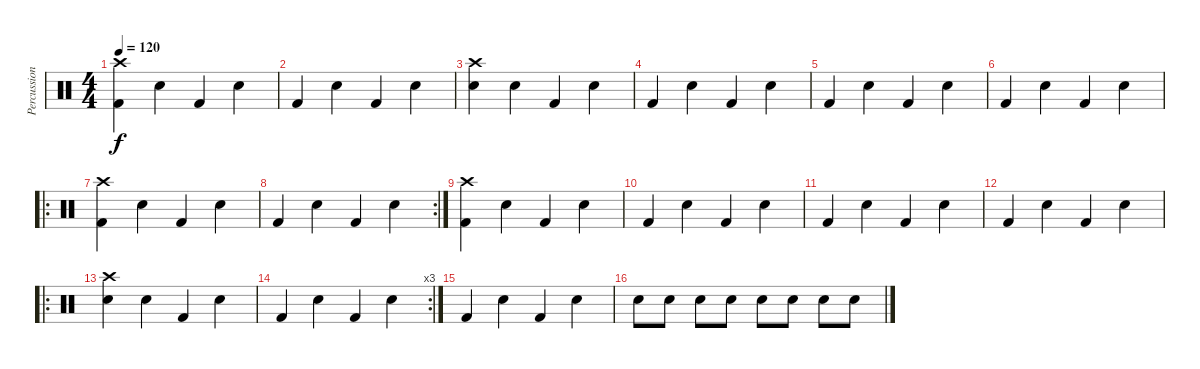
\track ("Percussions" "Percussion") {instrument percussion}
\staff {score}
\articulation defaults
\ts (4 4)
\tempo 120
\clef neutral
\ks c
("Crash high (hit)" "Kick (hit) 2").4{dy f} "Snare (hit) 2".4 "Kick (hit) 2".4 "Snare (hit) 2".4 |
"Kick (hit) 2".4 "Snare (hit) 2".4 "Kick (hit) 2".4 "Snare (hit) 2".4 |
("Crash high (hit)" "Snare (hit) 2").4 "Snare (hit) 2".4 "Kick (hit) 2".4 "Snare (hit) 2".4 |
"Kick (hit) 2".4 "Snare (hit) 2".4 "Kick (hit) 2".4 "Snare (hit) 2".4 |
"Kick (hit) 2".4 "Snare (hit) 2".4 "Kick (hit) 2".4 "Snare (hit) 2".4 |
"Kick (hit) 2".4 "Snare (hit) 2".4 "Kick (hit) 2".4 "Snare (hit) 2".4 |
\ro
("Crash high (hit)" "Kick (hit) 2").4 "Snare (hit) 2".4 "Kick (hit) 2".4 "Snare (hit) 2".4 |
\rc 2 "Kick (hit) 2".4 "Snare (hit) 2".4 "Kick (hit) 2".4 "Snare (hit) 2".4
|
("Crash high (hit)" "Kick (hit) 2").4 "Snare (hit) 2".4 "Kick (hit) 2".4 "Snare (hit) 2".4 |
"Kick (hit) 2".4 "Snare (hit) 2".4 "Kick (hit) 2".4 "Snare (hit) 2".4 |
"Kick (hit) 2".4 "Snare (hit) 2".4 "Kick (hit) 2".4 "Snare (hit) 2".4 |
"Kick (hit) 2".4 "Snare (hit) 2".4 "Kick (hit) 2".4 "Snare (hit) 2".4 |
\ro
("Crash high (hit)" "Snare (hit) 2").4 "Snare (hit) 2".4 "Kick (hit) 2".4 "Snare (hit) 2".4 |
\rc 3 "Kick (hit) 2".4 "Snare (hit) 2".4 "Kick (hit) 2".4 "Snare (hit) 2".4
|
"Kick (hit) 2".4 "Snare (hit) 2".4 "Kick (hit) 2".4 "Snare (hit) 2".4 |
"Snare (hit) 2".8 "Snare (hit) 2".8 "Snare (hit) 2".8 "Snare (hit) 2".8 "Snare (hit) 2".8 "Snare (hit) 2".8 "Snare (hit) 2".8 "Snare (hit) 2".8
